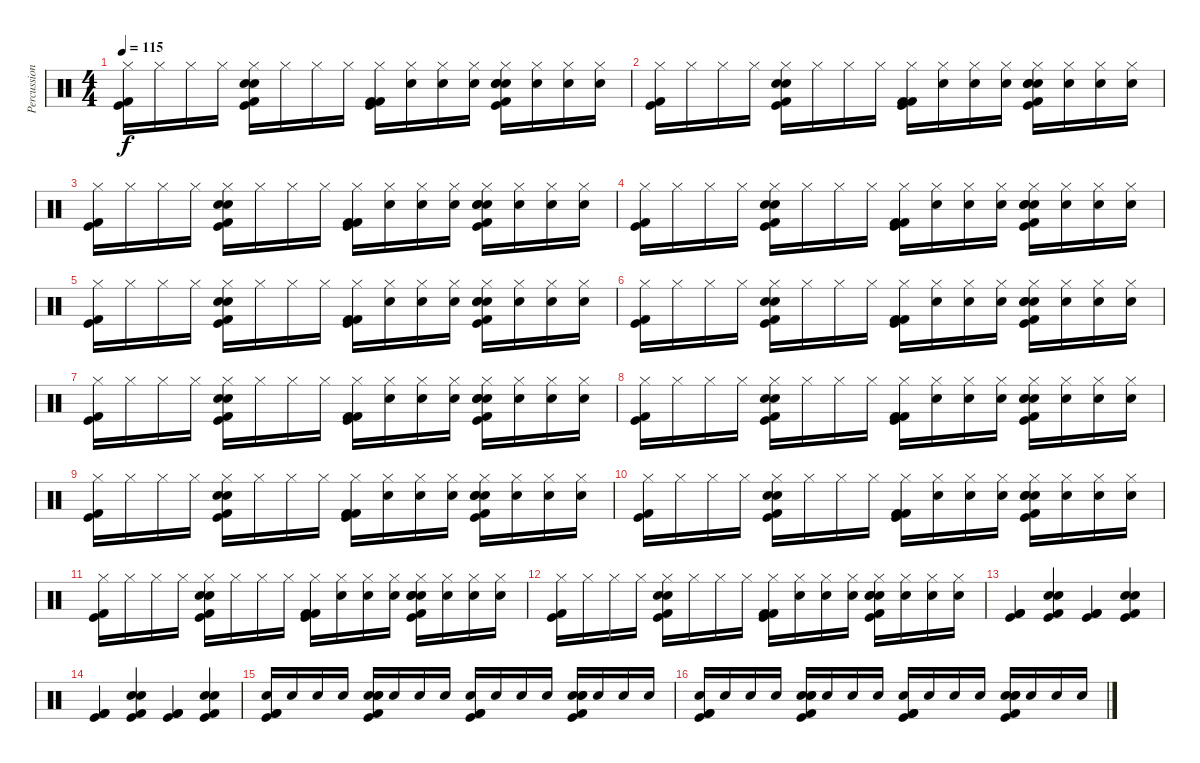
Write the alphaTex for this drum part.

\track ("Percussion" "Percussion") {instrument percussion}
\staff {score}
\articulation defaults
\ts (4 4)
\tempo 115
\clef neutral
\ks c
("Hi-Hat (closed)" "Kick (hit) 2" "Kick (hit)").16{dy f} "Hi-Hat (closed)".16 "Hi-Hat (closed)".16 "Hi-Hat (closed)".16 ("Hi-Hat (closed)" "Snare (hit) 2" "Electric Snare (hit)" "Kick (hit) 2" "Kick (hit)").16 "Hi-Hat (closed)".16 "Hi-Hat (closed)".16 "Hi-Hat (closed)".16 ("Hi-Hat (closed)" "Kick (hit) 2" "Kick (hit) 2" "Kick (hit)").16 ("Hi-Hat (closed)" "Hand Clap (hit)").16 ("Hi-Hat (closed)" "Hand Clap (hit)").16 ("Hi-Hat (closed)" "Hand Clap (hit)").16 ("Hi-Hat (closed)" "Snare (hit) 2" "Electric Snare (hit)" "Kick (hit) 2" "Hand Clap (hit)" "Kick (hit)").16 ("Hi-Hat (closed)" "Hand Clap (hit)").16 ("Hi-Hat (closed)" "Hand Clap (hit)").16 ("Hi-Hat (closed)" "Hand Clap (hit)").16 |
("Hi-Hat (closed)" "Kick (hit) 2" "Kick (hit)").16 "Hi-Hat (closed)".16 "Hi-Hat (closed)".16 "Hi-Hat (closed)".16 ("Hi-Hat (closed)" "Snare (hit) 2" "Electric Snare (hit)" "Kick (hit) 2" "Kick (hit)").16 "Hi-Hat (closed)".16 "Hi-Hat (closed)".16 "Hi-Hat (closed)".16 ("Hi-Hat (closed)" "Kick (hit) 2" "Kick (hit) 2" "Kick (hit)").16 ("Hi-Hat (closed)" "Hand Clap (hit)").16 ("Hi-Hat (closed)" "Hand Clap (hit)").16 ("Hi-Hat (closed)" "Hand Clap (hit)").16 ("Hi-Hat (closed)" "Snare (hit) 2" "Electric Snare (hit)" "Kick (hit) 2" "Hand Clap (hit)" "Kick (hit)").16 ("Hi-Hat (closed)" "Hand Clap (hit)").16 ("Hi-Hat (closed)" "Hand Clap (hit)").16 ("Hi-Hat (closed)" "Hand Clap (hit)").16 |
("Hi-Hat (closed)" "Kick (hit) 2" "Kick (hit)").16 "Hi-Hat (closed)".16 "Hi-Hat (closed)".16 "Hi-Hat (closed)".16 ("Hi-Hat (closed)" "Snare (hit) 2" "Electric Snare (hit)" "Kick (hit) 2" "Kick (hit)").16 "Hi-Hat (closed)".16 "Hi-Hat (closed)".16 "Hi-Hat (closed)".16 ("Hi-Hat (closed)" "Kick (hit) 2" "Kick (hit) 2" "Kick (hit)").16 ("Hi-Hat (closed)" "Hand Clap (hit)").16 ("Hi-Hat (closed)" "Hand Clap (hit)").16 ("Hi-Hat (closed)" "Hand Clap (hit)").16 ("Hi-Hat (closed)" "Snare (hit) 2" "Electric Snare (hit)" "Kick (hit) 2" "Hand Clap (hit)" "Kick (hit)").16 ("Hi-Hat (closed)" "Hand Clap (hit)").16 ("Hi-Hat (closed)" "Hand Clap (hit)").16 ("Hi-Hat (closed)" "Hand Clap (hit)").16 |
("Hi-Hat (closed)" "Kick (hit) 2" "Kick (hit)").16 "Hi-Hat (closed)".16 "Hi-Hat (closed)".16 "Hi-Hat (closed)".16 ("Hi-Hat (closed)" "Snare (hit) 2" "Electric Snare (hit)" "Kick (hit) 2" "Kick (hit)").16 "Hi-Hat (closed)".16 "Hi-Hat (closed)".16 "Hi-Hat (closed)".16 ("Hi-Hat (closed)" "Kick (hit) 2" "Kick (hit) 2" "Kick (hit)").16 ("Hi-Hat (closed)" "Hand Clap (hit)").16 ("Hi-Hat (closed)" "Hand Clap (hit)").16 ("Hi-Hat (closed)" "Hand Clap (hit)").16 ("Hi-Hat (closed)" "Snare (hit) 2" "Electric Snare (hit)" "Kick (hit) 2" "Hand Clap (hit)" "Kick (hit)").16 ("Hi-Hat (closed)" "Hand Clap (hit)").16 ("Hi-Hat (closed)" "Hand Clap (hit)").16 ("Hi-Hat (closed)" "Hand Clap (hit)").16 |
("Hi-Hat (closed)" "Kick (hit) 2" "Kick (hit)").16 "Hi-Hat (closed)".16 "Hi-Hat (closed)".16 "Hi-Hat (closed)".16 ("Hi-Hat (closed)" "Snare (hit) 2" "Electric Snare (hit)" "Kick (hit) 2" "Kick (hit)").16 "Hi-Hat (closed)".16 "Hi-Hat (closed)".16 "Hi-Hat (closed)".16 ("Hi-Hat (closed)" "Kick (hit) 2" "Kick (hit) 2" "Kick (hit)").16 ("Hi-Hat (closed)" "Hand Clap (hit)").16 ("Hi-Hat (closed)" "Hand Clap (hit)").16 ("Hi-Hat (closed)" "Hand Clap (hit)").16 ("Hi-Hat (closed)" "Snare (hit) 2" "Electric Snare (hit)" "Kick (hit) 2" "Hand Clap (hit)" "Kick (hit)").16 ("Hi-Hat (closed)" "Hand Clap (hit)").16 ("Hi-Hat (closed)" "Hand Clap (hit)").16 ("Hi-Hat (closed)" "Hand Clap (hit)").16 |
("Hi-Hat (closed)" "Kick (hit) 2" "Kick (hit)").16 "Hi-Hat (closed)".16 "Hi-Hat (closed)".16 "Hi-Hat (closed)".16 ("Hi-Hat (closed)" "Snare (hit) 2" "Electric Snare (hit)" "Kick (hit) 2" "Kick (hit)").16 "Hi-Hat (closed)".16 "Hi-Hat (closed)".16 "Hi-Hat (closed)".16 ("Hi-Hat (closed)" "Kick (hit) 2" "Kick (hit) 2" "Kick (hit)").16 ("Hi-Hat (closed)" "Hand Clap (hit)").16 ("Hi-Hat (closed)" "Hand Clap (hit)").16 ("Hi-Hat (closed)" "Hand Clap (hit)").16 ("Hi-Hat (closed)" "Snare (hit) 2" "Electric Snare (hit)" "Kick (hit) 2" "Hand Clap (hit)" "Kick (hit)").16 ("Hi-Hat (closed)" "Hand Clap (hit)").16 ("Hi-Hat (closed)" "Hand Clap (hit)").16 ("Hi-Hat (closed)" "Hand Clap (hit)").16 |
("Hi-Hat (closed)" "Kick (hit) 2" "Kick (hit)").16 "Hi-Hat (closed)".16 "Hi-Hat (closed)".16 "Hi-Hat (closed)".16 ("Hi-Hat (closed)" "Snare (hit) 2" "Electric Snare (hit)" "Kick (hit) 2" "Kick (hit)").16 "Hi-Hat (closed)".16 "Hi-Hat (closed)".16 "Hi-Hat (closed)".16 ("Hi-Hat (closed)" "Kick (hit) 2" "Kick (hit) 2" "Kick (hit)").16 ("Hi-Hat (closed)" "Hand Clap (hit)").16 ("Hi-Hat (closed)" "Hand Clap (hit)").16 ("Hi-Hat (closed)" "Hand Clap (hit)").16 ("Hi-Hat (closed)" "Snare (hit) 2" "Electric Snare (hit)" "Kick (hit) 2" "Hand Clap (hit)" "Kick (hit)").16 ("Hi-Hat (closed)" "Hand Clap (hit)").16 ("Hi-Hat (closed)" "Hand Clap (hit)").16 ("Hi-Hat (closed)" "Hand Clap (hit)").16 |
("Hi-Hat (closed)" "Kick (hit) 2" "Kick (hit)").16 "Hi-Hat (closed)".16 "Hi-Hat (closed)".16 "Hi-Hat (closed)".16 ("Hi-Hat (closed)" "Snare (hit) 2" "Electric Snare (hit)" "Kick (hit) 2" "Kick (hit)").16 "Hi-Hat (closed)".16 "Hi-Hat (closed)".16 "Hi-Hat (closed)".16 ("Hi-Hat (closed)" "Kick (hit) 2" "Kick (hit) 2" "Kick (hit)").16 ("Hi-Hat (closed)" "Hand Clap (hit)").16 ("Hi-Hat (closed)" "Hand Clap (hit)").16 ("Hi-Hat (closed)" "Hand Clap (hit)").16 ("Hi-Hat (closed)" "Snare (hit) 2" "Electric Snare (hit)" "Kick (hit) 2" "Hand Clap (hit)" "Kick (hit)").16 ("Hi-Hat (closed)" "Hand Clap (hit)").16 ("Hi-Hat (closed)" "Hand Clap (hit)").16 ("Hi-Hat (closed)" "Hand Clap (hit)").16 |
("Hi-Hat (closed)" "Kick (hit) 2" "Kick (hit)").16 "Hi-Hat (closed)".16 "Hi-Hat (closed)".16 "Hi-Hat (closed)".16 ("Hi-Hat (closed)" "Snare (hit) 2" "Electric Snare (hit)" "Kick (hit) 2" "Kick (hit)").16 "Hi-Hat (closed)".16 "Hi-Hat (closed)".16 "Hi-Hat (closed)".16 ("Hi-Hat (closed)" "Kick (hit) 2" "Kick (hit) 2" "Kick (hit)").16 ("Hi-Hat (closed)" "Hand Clap (hit)").16 ("Hi-Hat (closed)" "Hand Clap (hit)").16 ("Hi-Hat (closed)" "Hand Clap (hit)").16 ("Hi-Hat (closed)" "Snare (hit) 2" "Electric Snare (hit)" "Kick (hit) 2" "Hand Clap (hit)" "Kick (hit)").16 ("Hi-Hat (closed)" "Hand Clap (hit)").16 ("Hi-Hat (closed)" "Hand Clap (hit)").16 ("Hi-Hat (closed)" "Hand Clap (hit)").16 |
("Hi-Hat (closed)" "Kick (hit) 2" "Kick (hit)").16 "Hi-Hat (closed)".16 "Hi-Hat (closed)".16 "Hi-Hat (closed)".16 ("Hi-Hat (closed)" "Snare (hit) 2" "Electric Snare (hit)" "Kick (hit) 2" "Kick (hit)").16 "Hi-Hat (closed)".16 "Hi-Hat (closed)".16 "Hi-Hat (closed)".16 ("Hi-Hat (closed)" "Kick (hit) 2" "Kick (hit) 2" "Kick (hit)").16 ("Hi-Hat (closed)" "Hand Clap (hit)").16 ("Hi-Hat (closed)" "Hand Clap (hit)").16 ("Hi-Hat (closed)" "Hand Clap (hit)").16 ("Hi-Hat (closed)" "Snare (hit) 2" "Electric Snare (hit)" "Kick (hit) 2" "Hand Clap (hit)" "Kick (hit)").16 ("Hi-Hat (closed)" "Hand Clap (hit)").16 ("Hi-Hat (closed)" "Hand Clap (hit)").16 ("Hi-Hat (closed)" "Hand Clap (hit)").16 |
("Hi-Hat (closed)" "Kick (hit) 2" "Kick (hit)").16 "Hi-Hat (closed)".16 "Hi-Hat (closed)".16 "Hi-Hat (closed)".16 ("Hi-Hat (closed)" "Snare (hit) 2" "Electric Snare (hit)" "Kick (hit) 2" "Kick (hit)").16 "Hi-Hat (closed)".16 "Hi-Hat (closed)".16 "Hi-Hat (closed)".16 ("Hi-Hat (closed)" "Kick (hit) 2" "Kick (hit) 2" "Kick (hit)").16 ("Hi-Hat (closed)" "Hand Clap (hit)").16 ("Hi-Hat (closed)" "Hand Clap (hit)").16 ("Hi-Hat (closed)" "Hand Clap (hit)").16 ("Hi-Hat (closed)" "Snare (hit) 2" "Electric Snare (hit)" "Kick (hit) 2" "Hand Clap (hit)" "Kick (hit)").16 ("Hi-Hat (closed)" "Hand Clap (hit)").16 ("Hi-Hat (closed)" "Hand Clap (hit)").16 ("Hi-Hat (closed)" "Hand Clap (hit)").16 |
("Hi-Hat (closed)" "Kick (hit) 2" "Kick (hit)").16 "Hi-Hat (closed)".16 "Hi-Hat (closed)".16 "Hi-Hat (closed)".16 ("Hi-Hat (closed)" "Snare (hit) 2" "Electric Snare (hit)" "Kick (hit) 2" "Kick (hit)").16 "Hi-Hat (closed)".16 "Hi-Hat (closed)".16 "Hi-Hat (closed)".16 ("Hi-Hat (closed)" "Kick (hit) 2" "Kick (hit) 2" "Kick (hit)").16 ("Hi-Hat (closed)" "Hand Clap (hit)").16 ("Hi-Hat (closed)" "Hand Clap (hit)").16 ("Hi-Hat (closed)" "Hand Clap (hit)").16 ("Hi-Hat (closed)" "Snare (hit) 2" "Electric Snare (hit)" "Kick (hit) 2" "Hand Clap (hit)" "Kick (hit)").16 ("Hi-Hat (closed)" "Hand Clap (hit)").16 ("Hi-Hat (closed)" "Hand Clap (hit)").16 ("Hi-Hat (closed)" "Hand Clap (hit)").16 |
("Kick (hit) 2" "Kick (hit) 2" "Kick (hit)").4 ("Electric Snare (hit)" "Snare (hit) 2" "Kick (hit) 2" "Kick (hit)").4 ("Kick (hit) 2" "Kick (hit) 2" "Kick (hit)").4 ("Electric Snare (hit)" "Snare (hit) 2" "Kick (hit) 2" "Kick (hit)").4 |
("Kick (hit) 2" "Kick (hit) 2" "Kick (hit)").4 ("Snare (hit) 2" "Electric Snare (hit)" "Kick (hit) 2" "Kick (hit)").4 ("Kick (hit) 2" "Kick (hit) 2" "Kick (hit)").4 ("Snare (hit) 2" "Electric Snare (hit)" "Kick (hit) 2" "Kick (hit)").4 |
("Kick (hit) 2" "Kick (hit) 2" "Hand Clap (hit)" "Kick (hit)").16 "Hand Clap (hit)".16 "Hand Clap (hit)".16 "Hand Clap (hit)".16 ("Electric Snare (hit)" "Snare (hit) 2" "Kick (hit) 2" "Hand Clap (hit)" "Kick (hit)").16 "Hand Clap (hit)".16 "Hand Clap (hit)".16 "Hand Clap (hit)".16 ("Kick (hit) 2" "Kick (hit) 2" "Hand Clap (hit)" "Kick (hit)").16 "Hand Clap (hit)".16 "Hand Clap (hit)".16 "Hand Clap (hit)".16 ("Electric Snare (hit)" "Snare (hit) 2" "Kick (hit) 2" "Hand Clap (hit)" "Kick (hit)").16 "Hand Clap (hit)".16 "Hand Clap (hit)".16 "Hand Clap (hit)".16 |
("Kick (hit) 2" "Kick (hit) 2" "Hand Clap (hit)" "Kick (hit)").16 "Hand Clap (hit)".16 "Hand Clap (hit)".16 "Hand Clap (hit)".16 ("Electric Snare (hit)" "Snare (hit) 2" "Kick (hit) 2" "Hand Clap (hit)" "Kick (hit)").16 "Hand Clap (hit)".16 "Hand Clap (hit)".16 "Hand Clap (hit)".16 ("Kick (hit) 2" "Kick (hit) 2" "Hand Clap (hit)" "Kick (hit)").16 "Hand Clap (hit)".16 "Hand Clap (hit)".16 "Hand Clap (hit)".16 ("Electric Snare (hit)" "Snare (hit) 2" "Kick (hit) 2" "Hand Clap (hit)" "Kick (hit)").16 "Hand Clap (hit)".16 "Hand Clap (hit)".16 "Hand Clap (hit)".16
